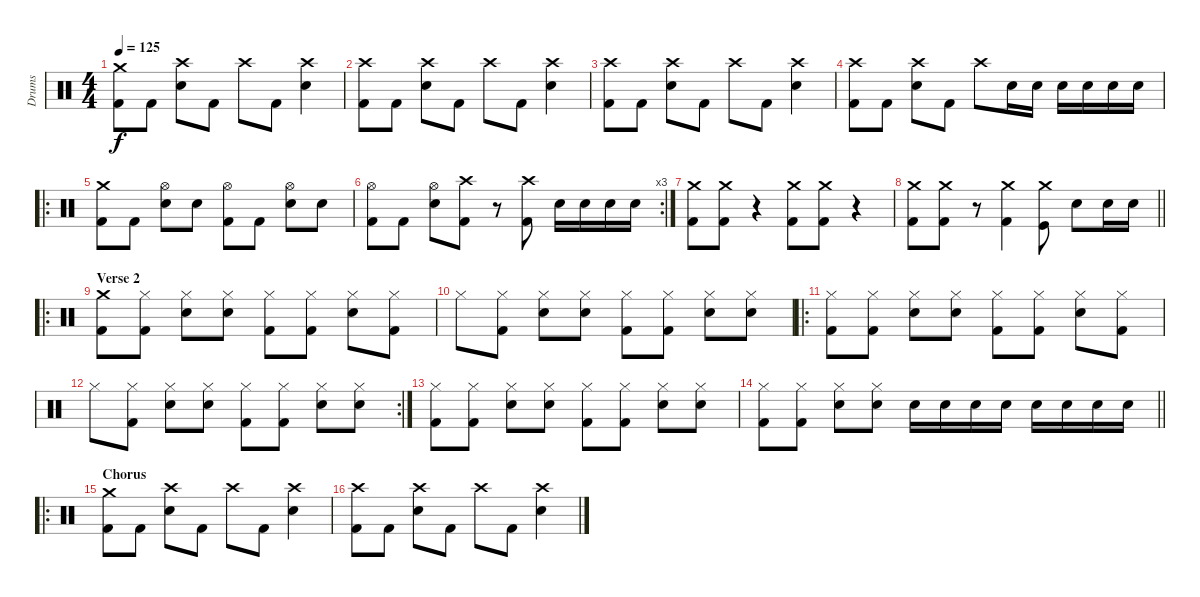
\track ("Drums" "Drums") {instrument percussion}
\staff {score}
\articulation defaults
\ts (4 4)
\tempo 125
\clef neutral
\ks c
("Crash medium (hit)" "Kick (hit) 2").8{dy f} "Kick (hit) 2".8 ("Crash high (hit)" "Electric Snare (hit)").8 "Kick (hit) 2".8 "Crash high (hit)".8 "Kick (hit) 2".8 ("Crash high (hit)" "Electric Snare (hit)").4 |
("Crash high (hit)" "Kick (hit) 2").8 "Kick (hit) 2".8 ("Crash high (hit)" "Electric Snare (hit)").8 "Kick (hit) 2".8 "Crash high (hit)".8 "Kick (hit) 2".8 ("Crash high (hit)" "Electric Snare (hit)").4 |
("Crash high (hit)" "Kick (hit) 2").8 "Kick (hit) 2".8 ("Crash high (hit)" "Electric Snare (hit)").8 "Kick (hit) 2".8 "Crash high (hit)".8 "Kick (hit) 2".8 ("Crash high (hit)" "Electric Snare (hit)").4 |
("Crash high (hit)" "Kick (hit) 2").8 "Kick (hit) 2".8 ("Crash high (hit)" "Electric Snare (hit)").8 "Kick (hit) 2".8 "Crash high (hit)".8 "Electric Snare (hit)".16 "Electric Snare (hit)".16 "Electric Snare (hit)".16 "Electric Snare (hit)".16 "Electric Snare (hit)".16 "Electric Snare (hit)".16 |
\ro
("Crash medium (hit)" "Kick (hit) 2").8 "Kick (hit) 2".8 ("Hi-Hat (open)" "Electric Snare (hit)").8 "Electric Snare (hit)".8 ("Hi-Hat (open)" "Kick (hit) 2").8 "Kick (hit) 2".8 ("Hi-Hat (open)" "Electric Snare (hit)").8 "Electric Snare (hit)".8 |
\rc 3
("Hi-Hat (open)" "Kick (hit) 2").8 "Kick (hit) 2".8 ("Hi-Hat (open)" "Electric Snare (hit)").8 ("Crash high (hit)" "Kick (hit) 2").8 r.8 ("Crash high (hit)" "Kick (hit) 2").8 "Electric Snare (hit)".16 "Electric Snare (hit)".16 "Electric Snare (hit)".16 "Electric Snare (hit)".16 |
("Crash medium (hit)" "Kick (hit) 2").8 ("Crash medium (hit)" "Kick (hit) 2").8 r.4 ("Crash medium (hit)" "Kick (hit) 2").8 ("Crash medium (hit)" "Kick (hit) 2").8 r.4 |
\barLineRight lightlight
("Crash medium (hit)" "Kick (hit) 2").8 ("Crash medium (hit)" "Kick (hit) 2").8 r.8 ("Crash medium (hit)" "Kick (hit) 2").4 ("Crash medium (hit)" "Kick (hit)").8 "Electric Snare (hit)".8 "Electric Snare (hit)".16 "Electric Snare (hit)".16 |
\ro
\section ("" "Verse 2")
("Crash medium (hit)" "Kick (hit) 2").8 ("Hi-Hat (closed)" "Kick (hit) 2").8 ("Hi-Hat (closed)" "Electric Snare (hit)").8 ("Hi-Hat (closed)" "Electric Snare (hit)").8 ("Hi-Hat (closed)" "Kick (hit) 2").8 ("Hi-Hat (closed)" "Kick (hit) 2").8 ("Hi-Hat (closed)" "Electric Snare (hit)").8 ("Hi-Hat (closed)" "Kick (hit) 2").8 |
"Hi-Hat (closed)".8 ("Hi-Hat (closed)" "Kick (hit) 2").8 ("Hi-Hat (closed)" "Electric Snare (hit)").8 ("Hi-Hat (closed)" "Electric Snare (hit)").8 ("Hi-Hat (closed)" "Kick (hit) 2").8 ("Hi-Hat (closed)" "Kick (hit) 2").8 ("Hi-Hat (closed)" "Electric Snare (hit)").8 ("Hi-Hat (closed)" "Electric Snare (hit)").8 |
\ro
("Hi-Hat (closed)" "Kick (hit) 2").8 ("Hi-Hat (closed)" "Kick (hit) 2").8 ("Hi-Hat (closed)" "Electric Snare (hit)").8 ("Hi-Hat (closed)" "Electric Snare (hit)").8 ("Hi-Hat (closed)" "Kick (hit) 2").8 ("Hi-Hat (closed)" "Kick (hit) 2").8 ("Hi-Hat (closed)" "Electric Snare (hit)").8 ("Hi-Hat (closed)" "Kick (hit) 2").8 |
\rc 2 "Hi-Hat (closed)".8
("Hi-Hat (closed)" "Kick (hit) 2").8 ("Hi-Hat (closed)" "Electric Snare (hit)").8 ("Hi-Hat (closed)" "Electric Snare (hit)").8 ("Hi-Hat (closed)" "Kick (hit) 2").8 ("Hi-Hat (closed)" "Kick (hit) 2").8 ("Hi-Hat (closed)" "Electric Snare (hit)").8 ("Hi-Hat (closed)" "Electric Snare (hit)").8 |
("Hi-Hat (closed)" "Kick (hit) 2").8 ("Hi-Hat (closed)" "Kick (hit) 2").8 ("Hi-Hat (closed)" "Electric Snare (hit)").8 ("Hi-Hat (closed)" "Electric Snare (hit)").8 ("Hi-Hat (closed)" "Kick (hit) 2").8 ("Hi-Hat (closed)" "Kick (hit) 2").8 ("Hi-Hat (closed)" "Electric Snare (hit)").8 ("Hi-Hat (closed)" "Electric Snare (hit)").8 |
\barLineRight lightlight
("Hi-Hat (closed)" "Kick (hit) 2").8 ("Hi-Hat (closed)" "Kick (hit) 2").8 ("Hi-Hat (closed)" "Electric Snare (hit)").8 ("Hi-Hat (closed)" "Electric Snare (hit)").8 "Electric Snare (hit)".16 "Electric Snare (hit)".16 "Electric Snare (hit)".16 "Electric Snare (hit)".16 "Electric Snare (hit)".16 "Electric Snare (hit)".16 "Electric Snare (hit)".16 "Electric Snare (hit)".16 |
\ro
\section ("" "Chorus")
("Crash medium (hit)" "Kick (hit) 2").8 "Kick (hit) 2".8 ("Crash high (hit)" "Electric Snare (hit)").8 "Kick (hit) 2".8 "Crash high (hit)".8 "Kick (hit) 2".8 ("Crash high (hit)" "Electric Snare (hit)").4 |
("Crash high (hit)" "Kick (hit) 2").8 "Kick (hit) 2".8 ("Crash high (hit)" "Electric Snare (hit)").8 "Kick (hit) 2".8 "Crash high (hit)".8 "Kick (hit) 2".8 ("Crash high (hit)" "Electric Snare (hit)").4
